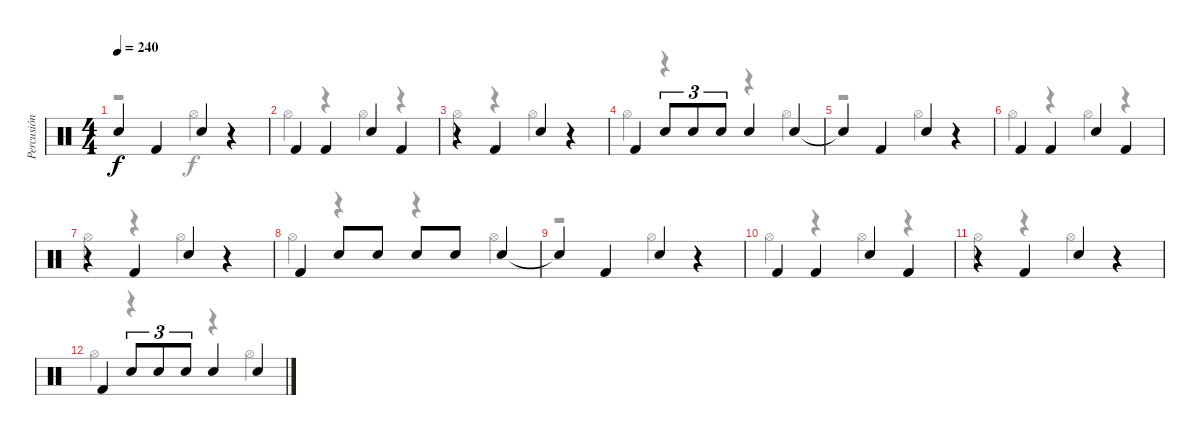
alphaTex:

\track ("Percusión" "Percusión") {instrument percussion}
\staff {score}
\articulation defaults
\voice
\ts (4 4)
\tempo 240
\clef neutral
\ks c "Snare (hit)"{t}.4{dy f} "Kick (hit) 2".4 "Electric Snare (hit)".4
r.4 |
"Kick (hit) 2".4 "Kick (hit) 2".4 "Electric Snare (hit)".4 "Kick (hit) 2".4 |
r.4 "Kick (hit) 2".4 "Electric Snare (hit)".4 r.4 |
"Kick (hit) 2".4 "Electric Snare (hit)".8{tu (3 2)} "Electric Snare (hit)".8{tu (3 2)} "Electric Snare (hit)".8{tu (3 2)} "Electric Snare (hit)".4 "Electric Snare (hit)".4 |
"Snare (hit)"{t}.4 "Kick (hit) 2".4 "Electric Snare (hit)".4 r.4 |
"Kick (hit) 2".4 "Kick (hit) 2".4 "Electric Snare (hit)".4 "Kick (hit) 2".4 |
r.4 "Kick (hit) 2".4 "Electric Snare (hit)".4 r.4 |
"Kick (hit) 2".4 "Electric Snare (hit)".8 "Electric Snare (hit)".8 "Electric Snare (hit)".8 "Electric Snare (hit)".8 "Electric Snare (hit)".4 |
"Snare (hit)"{t}.4 "Kick (hit) 2".4 "Electric Snare (hit)".4 r.4 |
"Kick (hit) 2".4 "Kick (hit) 2".4 "Electric Snare (hit)".4 "Kick (hit) 2".4 |
r.4 "Kick (hit) 2".4 "Electric Snare (hit)".4 r.4 |
"Kick (hit) 2".4 "Electric Snare (hit)".8{tu (3 2)} "Electric Snare (hit)".8{tu (3 2)} "Electric Snare (hit)".8{tu (3 2)} "Electric Snare (hit)".4 "Electric Snare (hit)".4
\voice
\clef neutral
\ottava regular
\simile none
\ks c
r.2{dy f} "Hi-Hat (open)".4 r.4 |
"Hi-Hat (open)".4 r.4 "Hi-Hat (open)".4 r.4 |
"Hi-Hat (open)".4 r.4 "Hi-Hat (open)".4 r.4 |
"Hi-Hat (open)".4 r.4 r.4 "Hi-Hat (open)".4 |
r.2 "Hi-Hat (open)".4 r.4 |
"Hi-Hat (open)".4 r.4 "Hi-Hat (open)".4 r.4 |
"Hi-Hat (open)".4 r.4 "Hi-Hat (open)".4 r.4 |
"Hi-Hat (open)".4 r.4 r.4 "Hi-Hat (open)".4 |
r.2 "Hi-Hat (open)".4 r.4 |
"Hi-Hat (open)".4 r.4 "Hi-Hat (open)".4 r.4 |
"Hi-Hat (open)".4 r.4 "Hi-Hat (open)".4 r.4 |
"Hi-Hat (open)".4 r.4 r.4 "Hi-Hat (open)".4
